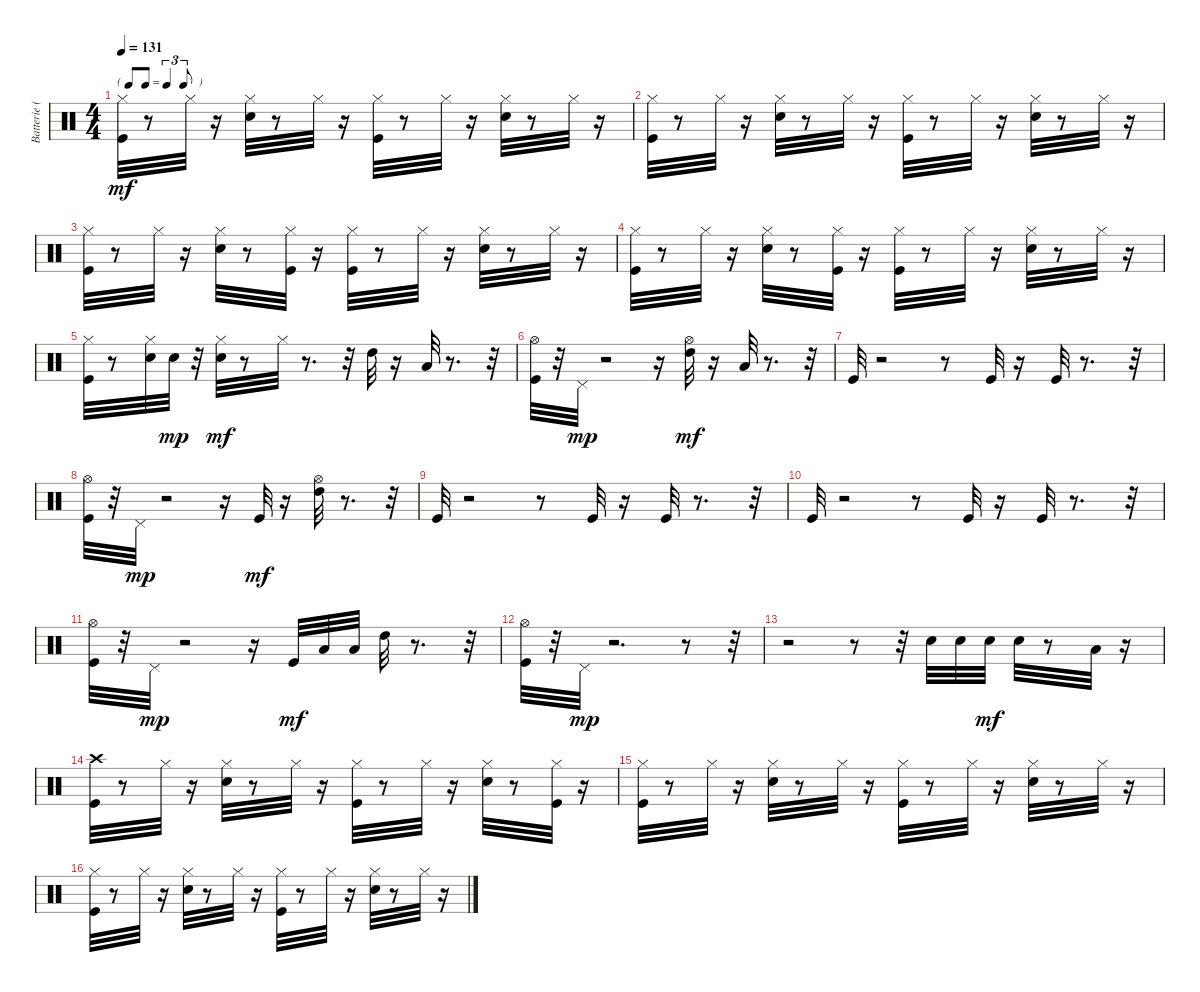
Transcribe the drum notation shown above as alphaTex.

\track ("Batterie (midi)" "Batterie (") {instrument percussion}
\staff {score}
\articulation defaults
\ts (4 4)
\tf triplet8th
\tempo 131
\clef neutral
\ks c
("Kick (hit)" "Hi-Hat (closed)").32{dy mf} r.8 "Hi-Hat (closed)".32 r.16 ("Electric Snare (hit)" "Hi-Hat (closed)").32 r.8 "Hi-Hat (closed)".32 r.16 ("Kick (hit)" "Hi-Hat (closed)").32 r.8 "Hi-Hat (closed)".32 r.16 ("Electric Snare (hit)" "Hi-Hat (closed)").32 r.8 "Hi-Hat (closed)".32 r.16 |
("Kick (hit)" "Hi-Hat (closed)").32 r.8 "Hi-Hat (closed)".32 r.16 ("Electric Snare (hit)" "Hi-Hat (closed)").32 r.8 "Hi-Hat (closed)".32 r.16 ("Kick (hit)" "Hi-Hat (closed)").32 r.8 "Hi-Hat (closed)".32 r.16 ("Electric Snare (hit)" "Hi-Hat (closed)").32 r.8 "Hi-Hat (closed)".32 r.16 |
("Kick (hit)" "Hi-Hat (closed)").32 r.8 "Hi-Hat (closed)".32 r.16 ("Electric Snare (hit)" "Hi-Hat (closed)").32 r.8 ("Kick (hit)" "Hi-Hat (closed)").32 r.16 ("Kick (hit)" "Hi-Hat (closed)").32 r.8 "Hi-Hat (closed)".32 r.16 ("Electric Snare (hit)" "Hi-Hat (closed)").32 r.8 "Hi-Hat (closed)".32 r.16 |
("Kick (hit)" "Hi-Hat (closed)").32 r.8 "Hi-Hat (closed)".32 r.16 ("Electric Snare (hit)" "Hi-Hat (closed)").32 r.8 ("Kick (hit)" "Hi-Hat (closed)").32 r.16 ("Kick (hit)" "Hi-Hat (closed)").32 r.8 "Hi-Hat (closed)".32 r.16 ("Electric Snare (hit)" "Hi-Hat (closed)").32 r.8 "Hi-Hat (closed)".32 r.16 |
("Kick (hit)" "Hi-Hat (closed)").32 r.8 ("Electric Snare (hit)" "Hi-Hat (closed)").32 "Electric Snare (hit)".32{dy mp} r.32 ("Electric Snare (hit)" "Hi-Hat (closed)").32{dy mf} r.8 "Hi-Hat (closed)".32 r.8{d} r.32 "High Tom (hit)".32 r.16 "Low Tom (hit)".32 r.8{d} r.32 |
("Kick (hit)" "Hi-Hat (open)").32 r.32 "Pedal Hi-Hat (hit)".32{dy mp} r.2 r.16 ("High Tom (hit)" "Hi-Hat (open)").32{dy mf} r.16 "Low Tom (hit)".32 r.8{d} r.32 |
"Kick (hit)".32 r.2 r.8 "Kick (hit)".32 r.16 "Kick (hit)".32 r.8{d} r.32 |
("Kick (hit)" "Hi-Hat (open)").32 r.32 "Pedal Hi-Hat (hit)".32{dy mp} r.2 r.16 "Kick (hit)".32{dy mf} r.16 ("High Tom (hit)" "Hi-Hat (open)").32 r.8{d} r.32 |
"Kick (hit)".32 r.2 r.8 "Kick (hit)".32 r.16 "Kick (hit)".32 r.8{d} r.32 |
"Kick (hit)".32 r.2 r.8 "Kick (hit)".32 r.16 "Kick (hit)".32 r.8{d} r.32 |
("Kick (hit)" "Hi-Hat (open)").32 r.32 "Pedal Hi-Hat (hit)".32{dy mp} r.2 r.16 "Kick (hit)".32{dy mf} "Low Tom (hit)".32 "Low Tom (hit)".32 "High Tom (hit)".32 r.8{d} r.32 |
("Kick (hit)" "Hi-Hat (open)").32 r.32 "Pedal Hi-Hat (hit)".32{dy mp} r.2{d} r.8 r.32 |
r.2 r.8 r.32 "Snare (hit) 2".32 "Snare (hit) 2".32 "Snare (hit) 2".32{dy mf} "Snare (hit) 2".32 r.8 "Low Floor Tom (hit)".32 r.16 |
("Kick (hit)" "Crash high (hit)").32 r.8 "Hi-Hat (closed)".32 r.16 ("Electric Snare (hit)" "Hi-Hat (closed)").32 r.8 "Hi-Hat (closed)".32 r.16 ("Kick (hit)" "Hi-Hat (closed)").32 r.8 "Hi-Hat (closed)".32 r.16 ("Electric Snare (hit)" "Hi-Hat (closed)").32 r.8 ("Kick (hit)" "Hi-Hat (closed)").32 r.16 |
("Kick (hit)" "Hi-Hat (closed)").32 r.8 "Hi-Hat (closed)".32 r.16 ("Electric Snare (hit)" "Hi-Hat (closed)").32 r.8 "Hi-Hat (closed)".32 r.16 ("Kick (hit)" "Hi-Hat (closed)").32 r.8 "Hi-Hat (closed)".32 r.16 ("Electric Snare (hit)" "Hi-Hat (closed)").32 r.8 "Hi-Hat (closed)".32 r.16 |
("Kick (hit)" "Hi-Hat (closed)").32 r.8 "Hi-Hat (closed)".32 r.16 ("Electric Snare (hit)" "Hi-Hat (closed)").32 r.8 "Hi-Hat (closed)".32 r.16 ("Kick (hit)" "Hi-Hat (closed)").32 r.8 "Hi-Hat (closed)".32 r.16 ("Electric Snare (hit)" "Hi-Hat (closed)").32 r.8 "Hi-Hat (closed)".32 r.16
